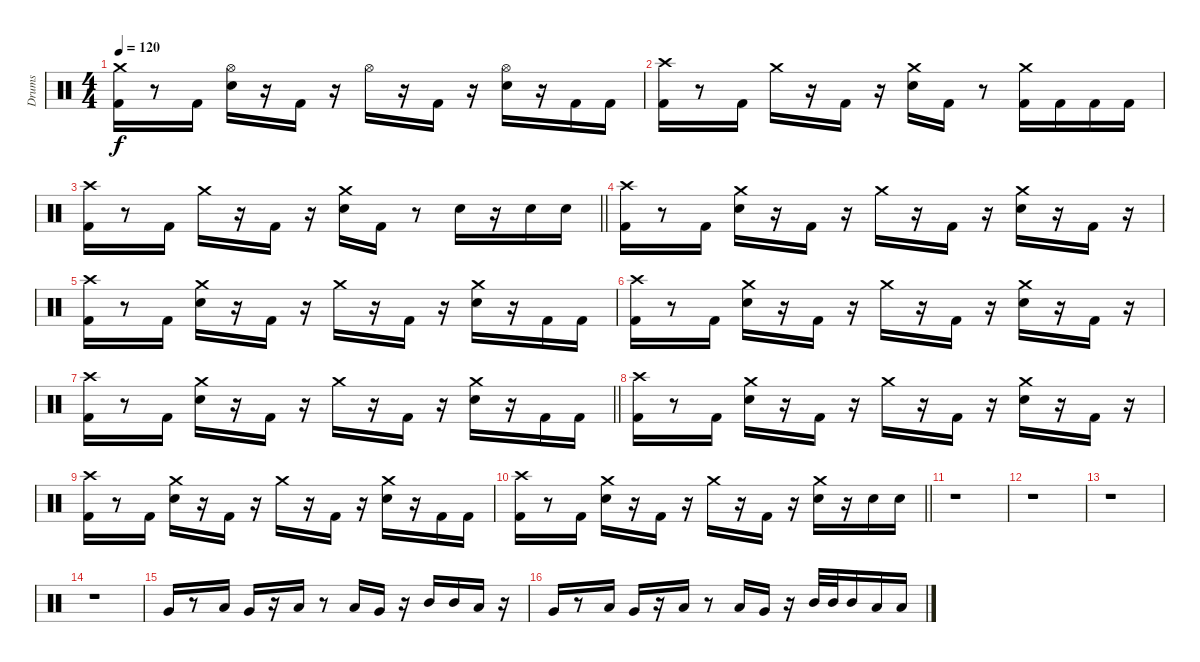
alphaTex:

\track ("Drums" "Drums") {instrument percussion}
\staff {score}
\articulation defaults
\ts (4 4)
\tempo 120
\clef neutral
\ks c
("Kick (hit) 2" "Crash medium (hit)").16{dy f} r.8 "Kick (hit) 2".16 ("Snare (hit) 2" "Hi-Hat (open)").16 r.16 "Kick (hit) 2".16 r.16 "Hi-Hat (open)".16 r.16 "Kick (hit) 2".16 r.16 ("Snare (hit) 2" "Hi-Hat (open)").16 r.16 "Kick (hit) 2".16 "Kick (hit) 2".16 |
("Kick (hit) 2" "Crash high (hit)").16 r.8 "Kick (hit) 2".16 "Crash medium (hit)".16 r.16 "Kick (hit) 2".16 r.16 ("Snare (hit) 2" "Crash medium (hit)").16 "Kick (hit) 2".16 r.8 ("Kick (hit) 2" "Crash medium (hit)").16 "Kick (hit) 2".16 "Kick (hit) 2".16 "Kick (hit) 2".16 |
\barLineRight lightlight
("Kick (hit) 2" "Crash high (hit)").16 r.8 "Kick (hit) 2".16 "Crash medium (hit)".16 r.16 "Kick (hit) 2".16 r.16 ("Snare (hit) 2" "Crash medium (hit)").16 "Kick (hit) 2".16 r.8 "Snare (hit) 2".16 r.16 "Snare (hit) 2".16 "Snare (hit) 2".16 |
\section ("" " ")
("Kick (hit) 2" "Crash high (hit)").16 r.8 "Kick (hit) 2".16 ("Snare (hit) 2" "Crash medium (hit)").16 r.16 "Kick (hit) 2".16 r.16 "Crash medium (hit)".16 r.16 "Kick (hit) 2".16 r.16 ("Snare (hit) 2" "Crash medium (hit)").16 r.16 "Kick (hit) 2".16 r.16 |
("Kick (hit) 2" "Crash high (hit)").16 r.8 "Kick (hit) 2".16 ("Snare (hit) 2" "Crash medium (hit)").16 r.16 "Kick (hit) 2".16 r.16 "Crash medium (hit)".16 r.16 "Kick (hit) 2".16 r.16 ("Snare (hit) 2" "Crash medium (hit)").16 r.16 "Kick (hit) 2".16 "Kick (hit) 2".16 |
("Kick (hit) 2" "Crash high (hit)").16 r.8 "Kick (hit) 2".16 ("Snare (hit) 2" "Crash medium (hit)").16 r.16 "Kick (hit) 2".16 r.16 "Crash medium (hit)".16 r.16 "Kick (hit) 2".16 r.16 ("Snare (hit) 2" "Crash medium (hit)").16 r.16 "Kick (hit) 2".16 r.16 |
\barLineRight lightlight
("Kick (hit) 2" "Crash high (hit)").16 r.8 "Kick (hit) 2".16 ("Snare (hit) 2" "Crash medium (hit)").16 r.16 "Kick (hit) 2".16 r.16 "Crash medium (hit)".16 r.16 "Kick (hit) 2".16 r.16 ("Snare (hit) 2" "Crash medium (hit)").16 r.16 "Kick (hit) 2".16 "Kick (hit) 2".16 |
("Kick (hit) 2" "Crash high (hit)").16 r.8 "Kick (hit) 2".16 ("Snare (hit) 2" "Crash medium (hit)").16 r.16 "Kick (hit) 2".16 r.16 "Crash medium (hit)".16 r.16 "Kick (hit) 2".16 r.16 ("Snare (hit) 2" "Crash medium (hit)").16 r.16 "Kick (hit) 2".16 r.16 |
("Kick (hit) 2" "Crash high (hit)").16 r.8 "Kick (hit) 2".16 ("Snare (hit) 2" "Crash medium (hit)").16 r.16 "Kick (hit) 2".16 r.16 "Crash medium (hit)".16 r.16 "Kick (hit) 2".16 r.16 ("Snare (hit) 2" "Crash medium (hit)").16 r.16 "Kick (hit) 2".16 "Kick (hit) 2".16 |
\barLineRight lightlight
("Kick (hit) 2" "Crash high (hit)").16 r.8 "Kick (hit) 2".16 ("Snare (hit) 2" "Crash medium (hit)").16 r.16 "Kick (hit) 2".16 r.16 "Crash medium (hit)".16 r.16 "Kick (hit) 2".16 r.16 ("Snare (hit) 2" "Crash medium (hit)").16 r.16 "Snare (hit) 2".16 "Snare (hit) 2".16 |
\section ("" " ")
r.1 |
r.1 |
r.1 |
r.1 |
"Very Low Tom (hit)".16 r.8 "Low Tom (hit)".16 "Very Low Tom (hit)".16 r.16 "Low Tom (hit)".16 r.8 "Low Tom (hit)".16 "Very Low Tom (hit)".16 r.16 "Mid Tom (hit)".16 "Mid Tom (hit)".16 "Low Tom (hit)".16 r.16 |
"Very Low Tom (hit)".16 r.8 "Low Tom (hit)".16 "Very Low Tom (hit)".16 r.16 "Low Tom (hit)".16 r.8 "Low Tom (hit)".16 "Very Low Tom (hit)".16 r.16 "Mid Tom (hit)".32 "Mid Tom (hit)".32 "Mid Tom (hit)".16 "Low Tom (hit)".16 "Low Tom (hit)".16
